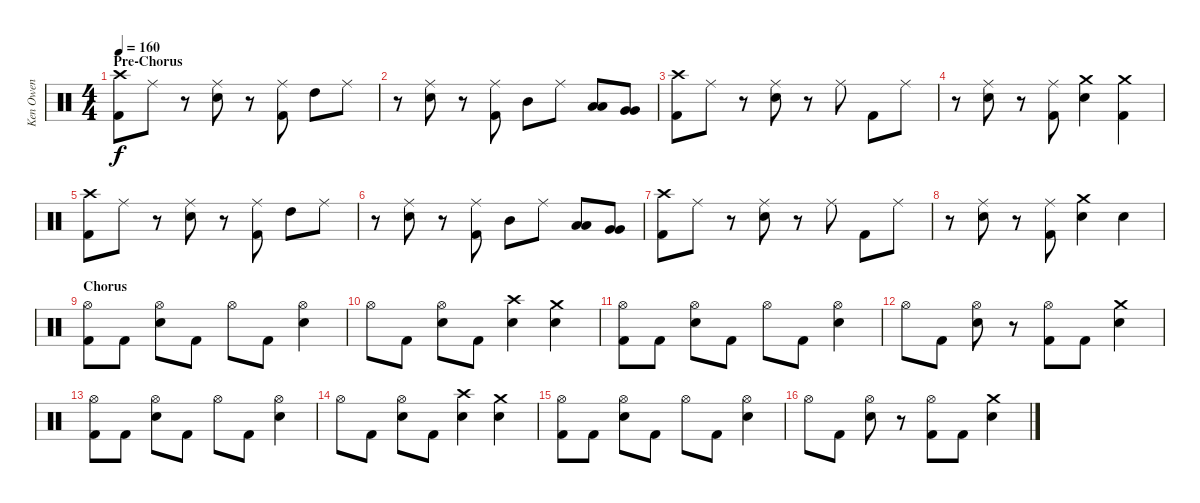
\track ("Ken Owen" "Ken Owen") {instrument percussion}
\staff {score}
\articulation defaults
\ts (4 4)
\section ("" "Pre-Chorus")
\tempo 160
\clef neutral
\ks c
("Crash high (hit)" "Kick (hit) 2").8{dy f} "Ride (middle)".8 r.8 ("Ride (middle)" "Electric Snare (hit)").8 r.8 ("Ride (middle)" "Kick (hit) 2").8 "High Tom (hit)".8 "Ride (middle)".8 |
r.8 ("Ride (middle)" "Electric Snare (hit)").8 r.8 ("Ride (middle)" "Kick (hit) 2").8 "Mid Tom (hit)".8 "Ride (middle)".8 ("Low Tom (hit)" "Low Tom (hit)").8 ("Very Low Tom (hit)" "Very Low Tom (hit)").8 |
("Crash high (hit)" "Kick (hit) 2").8 "Ride (middle)".8 r.8 ("Ride (middle)" "Electric Snare (hit)").8 r.8 "Ride (middle)".8 "Kick (hit) 2".8 "Ride (middle)".8 |
r.8 ("Ride (middle)" "Electric Snare (hit)").8 r.8 ("Ride (middle)" "Kick (hit) 2").8 ("Crash medium (hit)" "Electric Snare (hit)").4 ("Crash medium (hit)" "Kick (hit) 2").4 |
("Crash high (hit)" "Kick (hit) 2").8 "Ride (middle)".8 r.8 ("Ride (middle)" "Electric Snare (hit)").8 r.8 ("Ride (middle)" "Kick (hit) 2").8 "High Tom (hit)".8 "Ride (middle)".8 |
r.8 ("Ride (middle)" "Electric Snare (hit)").8 r.8 ("Ride (middle)" "Kick (hit) 2").8 "Mid Tom (hit)".8 "Ride (middle)".8 ("Low Tom (hit)" "Low Tom (hit)").8 ("Very Low Tom (hit)" "Very Low Tom (hit)").8 |
("Crash high (hit)" "Kick (hit) 2").8 "Ride (middle)".8 r.8 ("Ride (middle)" "Electric Snare (hit)").8 r.8 "Ride (middle)".8 "Kick (hit) 2".8 "Ride (middle)".8 |
r.8 ("Ride (middle)" "Electric Snare (hit)").8 r.8 ("Ride (middle)" "Kick (hit) 2").8 ("Crash medium (hit)" "Electric Snare (hit)").4 "Electric Snare (hit)".4 |
\section ("" "Chorus")
("Hi-Hat (open)" "Kick (hit) 2").8 "Kick (hit) 2".8 ("Hi-Hat (open)" "Electric Snare (hit)").8 "Kick (hit) 2".8 "Hi-Hat (open)".8 "Kick (hit) 2".8 ("Hi-Hat (open)" "Electric Snare (hit)").4 |
"Hi-Hat (open)".8 "Kick (hit) 2".8 ("Hi-Hat (open)" "Electric Snare (hit)").8 "Kick (hit) 2".8 ("Crash high (hit)" "Electric Snare (hit)").4 ("Crash medium (hit)" "Electric Snare (hit)").4 |
("Hi-Hat (open)" "Kick (hit) 2").8 "Kick (hit) 2".8 ("Hi-Hat (open)" "Electric Snare (hit)").8 "Kick (hit) 2".8 "Hi-Hat (open)".8 "Kick (hit) 2".8 ("Hi-Hat (open)" "Electric Snare (hit)").4 |
"Hi-Hat (open)".8 "Kick (hit) 2".8 ("Hi-Hat (open)" "Electric Snare (hit)").8 r.8 ("Hi-Hat (open)" "Kick (hit) 2").8 "Kick (hit) 2".8 ("Crash medium (hit)" "Electric Snare (hit)").4 |
("Hi-Hat (open)" "Kick (hit) 2").8 "Kick (hit) 2".8 ("Hi-Hat (open)" "Electric Snare (hit)").8 "Kick (hit) 2".8 "Hi-Hat (open)".8 "Kick (hit) 2".8 ("Hi-Hat (open)" "Electric Snare (hit)").4 |
"Hi-Hat (open)".8 "Kick (hit) 2".8 ("Hi-Hat (open)" "Electric Snare (hit)").8 "Kick (hit) 2".8 ("Crash high (hit)" "Electric Snare (hit)").4 ("Crash medium (hit)" "Electric Snare (hit)").4 |
("Hi-Hat (open)" "Kick (hit) 2").8 "Kick (hit) 2".8 ("Hi-Hat (open)" "Electric Snare (hit)").8 "Kick (hit) 2".8 "Hi-Hat (open)".8 "Kick (hit) 2".8 ("Hi-Hat (open)" "Electric Snare (hit)").4 |
"Hi-Hat (open)".8 "Kick (hit) 2".8 ("Hi-Hat (open)" "Electric Snare (hit)").8 r.8 ("Hi-Hat (open)" "Kick (hit) 2").8 "Kick (hit) 2".8 ("Crash medium (hit)" "Electric Snare (hit)").4
